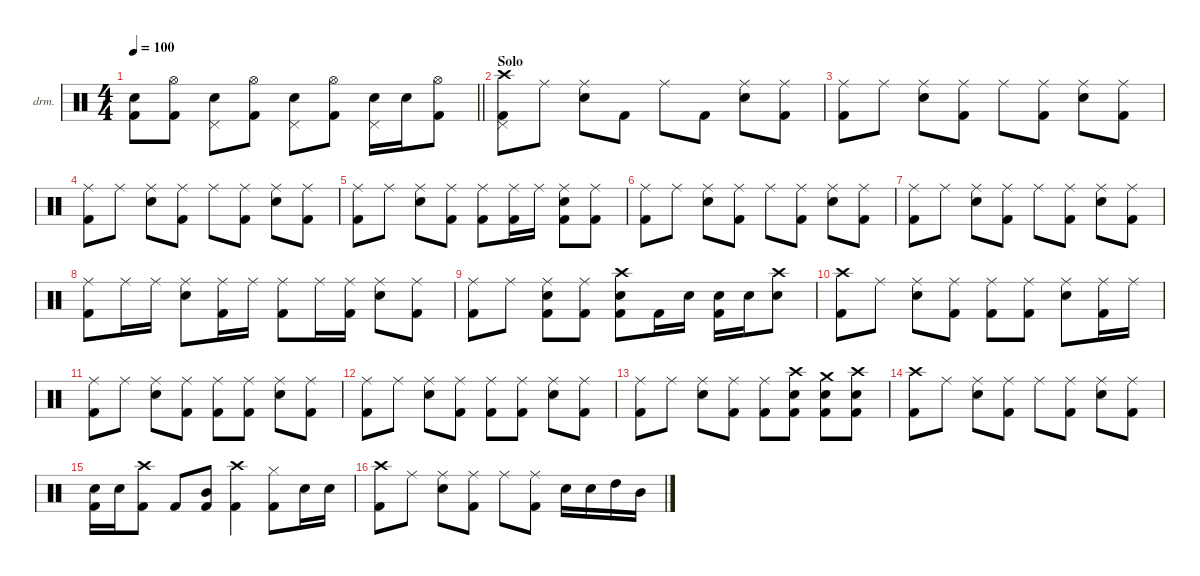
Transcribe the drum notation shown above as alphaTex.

\defaultSystemsLayout 4
\hideDynamics
\bracketExtendMode nobrackets
\firstSystemTrackNameOrientation horizontal
\otherSystemsTrackNameOrientation horizontal
\track ("Drums" "drm.") {instrument percussion}
\staff {score}
\articulation defaults
\ts (4 4)
\tempo 100
\clef neutral
\barLineRight lightlight
\ks c
("Kick (hit) 2" "Snare (hit) 2").8{dy f} ("Kick (hit) 2" "Hi-Hat (open)").8 ("Snare (hit) 2" "Pedal Hi-Hat (hit)").8 ("Kick (hit) 2" "Hi-Hat (open)").8 ("Snare (hit) 2" "Pedal Hi-Hat (hit)").8 ("Kick (hit) 2" "Hi-Hat (open)").8 ("Snare (hit) 2" "Pedal Hi-Hat (hit)").16 "Snare (hit) 2".16 ("Kick (hit) 2" "Hi-Hat (open)").8 |
\section ("" "Solo")
("Kick (hit) 2" "Pedal Hi-Hat (hit)" "Crash high (hit)").8 "Ride (middle)".8 ("Snare (hit) 2" "Ride (middle)").8 "Kick (hit) 2".8 "Ride (middle)".8 "Kick (hit) 2".8 ("Snare (hit) 2" "Ride (middle)").8 ("Kick (hit) 2" "Ride (middle)").8 |
("Kick (hit) 2" "Ride (middle)").8 "Ride (middle)".8 ("Snare (hit) 2" "Ride (middle)").8 ("Kick (hit) 2" "Ride (middle)").8 "Ride (middle)".8 ("Kick (hit) 2" "Ride (middle)").8 ("Snare (hit) 2" "Ride (middle)").8 ("Kick (hit) 2" "Ride (middle)").8 |
("Kick (hit) 2" "Ride (middle)").8 "Ride (middle)".8 ("Snare (hit) 2" "Ride (middle)").8 ("Kick (hit) 2" "Ride (middle)").8 "Ride (middle)".8 ("Kick (hit) 2" "Ride (middle)").8 ("Snare (hit) 2" "Ride (middle)").8 ("Kick (hit) 2" "Ride (middle)").8 |
("Kick (hit) 2" "Ride (middle)").8 "Ride (middle)".8 ("Snare (hit) 2" "Ride (middle)").8 ("Kick (hit) 2" "Ride (middle)").8 ("Kick (hit) 2" "Ride (middle)").8 ("Kick (hit) 2" "Ride (middle)").16 "Ride (middle)".16 ("Kick (hit) 2" "Snare (hit) 2" "Ride (middle)").8 ("Kick (hit) 2" "Ride (middle)").8 |
("Kick (hit) 2" "Ride (middle)").8 "Ride (middle)".8 ("Snare (hit) 2" "Ride (middle)").8 ("Kick (hit) 2" "Ride (middle)").8 "Ride (middle)".8 ("Kick (hit) 2" "Ride (middle)").8 ("Snare (hit) 2" "Ride (middle)").8 ("Kick (hit) 2" "Ride (middle)").8 |
("Kick (hit) 2" "Ride (middle)").8 "Ride (middle)".8 ("Snare (hit) 2" "Ride (middle)").8 ("Kick (hit) 2" "Ride (middle)").8 "Ride (middle)".8 ("Kick (hit) 2" "Ride (middle)").8 ("Snare (hit) 2" "Ride (middle)").8 ("Kick (hit) 2" "Ride (middle)").8 |
("Kick (hit) 2" "Ride (middle)").8 "Ride (middle)".16 "Ride (middle)".16 ("Snare (hit) 2" "Ride (middle)").8 ("Kick (hit) 2" "Ride (middle)").16 "Ride (middle)".16 ("Kick (hit) 2" "Ride (middle)").8 "Ride (middle)".16 ("Kick (hit) 2" "Ride (middle)").16 ("Snare (hit) 2" "Ride (middle)").8 ("Kick (hit) 2" "Ride (middle)").8 |
("Kick (hit) 2" "Ride (middle)").8 "Ride (middle)".8 ("Kick (hit) 2" "Snare (hit) 2" "Ride (middle)").8 ("Kick (hit) 2" "Ride (middle)").8 ("Kick (hit) 2" "Snare (hit) 2" "Crash high (hit)").8 "Kick (hit) 2".16 "Snare (hit) 2".16 ("Kick (hit) 2" "Snare (hit) 2").16 "Snare (hit) 2".16 ("Snare (hit) 2" "Crash high (hit)").8 |
("Kick (hit) 2" "Crash high (hit)").8 "Ride (middle)".8 ("Snare (hit) 2" "Ride (middle)").8 ("Kick (hit) 2" "Ride (middle)").8 ("Kick (hit) 2" "Ride (middle)").8 ("Kick (hit) 2" "Ride (middle)").8 ("Snare (hit) 2" "Ride (middle)").8 ("Kick (hit) 2" "Ride (middle)").16 "Ride (middle)".16 |
("Kick (hit) 2" "Ride (middle)").8 "Ride (middle)".8 ("Snare (hit) 2" "Ride (middle)").8 ("Kick (hit) 2" "Ride (middle)").8 ("Kick (hit) 2" "Ride (middle)").8 ("Kick (hit) 2" "Ride (middle)").8 ("Snare (hit) 2" "Ride (middle)").8 ("Kick (hit) 2" "Ride (middle)").8 |
("Kick (hit) 2" "Ride (middle)").8 "Ride (middle)".8 ("Snare (hit) 2" "Ride (middle)").8 ("Kick (hit) 2" "Ride (middle)").8 ("Kick (hit) 2" "Ride (middle)").8 ("Kick (hit) 2" "Ride (middle)").8 ("Snare (hit) 2" "Ride (middle)").8 ("Kick (hit) 2" "Ride (middle)").8 |
("Kick (hit) 2" "Ride (middle)").8 "Ride (middle)".8 ("Snare (hit) 2" "Ride (middle)").8 ("Kick (hit) 2" "Ride (middle)").8 ("Kick (hit) 2" "Ride (middle)").8 ("Kick (hit) 2" "Snare (hit) 2" "Crash high (hit)").8 ("Kick (hit) 2" "Snare (hit) 2" "Crash medium (hit)").8 ("Kick (hit) 2" "Snare (hit) 2" "Crash high (hit)").8 |
("Kick (hit) 2" "Crash high (hit)").8 "Ride (middle)".8 ("Snare (hit) 2" "Ride (middle)").8 ("Kick (hit) 2" "Ride (middle)").8 "Ride (middle)".8 ("Kick (hit) 2" "Ride (middle)").8 ("Snare (hit) 2" "Ride (middle)").8 ("Kick (hit) 2" "Ride (middle)").8 |
("Kick (hit) 2" "Snare (hit) 2").16 "Snare (hit) 2".16 ("Kick (hit) 2" "Crash high (hit)").8 "Kick (hit) 2".8 ("Kick (hit) 2" "Mid Tom (hit)").8 ("Kick (hit) 2" "Crash high (hit)").4 ("Kick (hit) 2" "Hi-Hat (closed)").8 "Snare (hit) 2".16 "Snare (hit) 2".16 |
("Kick (hit) 2" "Crash high (hit)").8 "Ride (middle)".8 ("Snare (hit) 2" "Ride (middle)").8 ("Kick (hit) 2" "Ride (middle)").8 "Ride (middle)".8 ("Kick (hit) 2" "Ride (middle)").8 "Snare (hit) 2".16 "Snare (hit) 2".16 "High Tom (hit)".16 "Mid Tom (hit)".16
